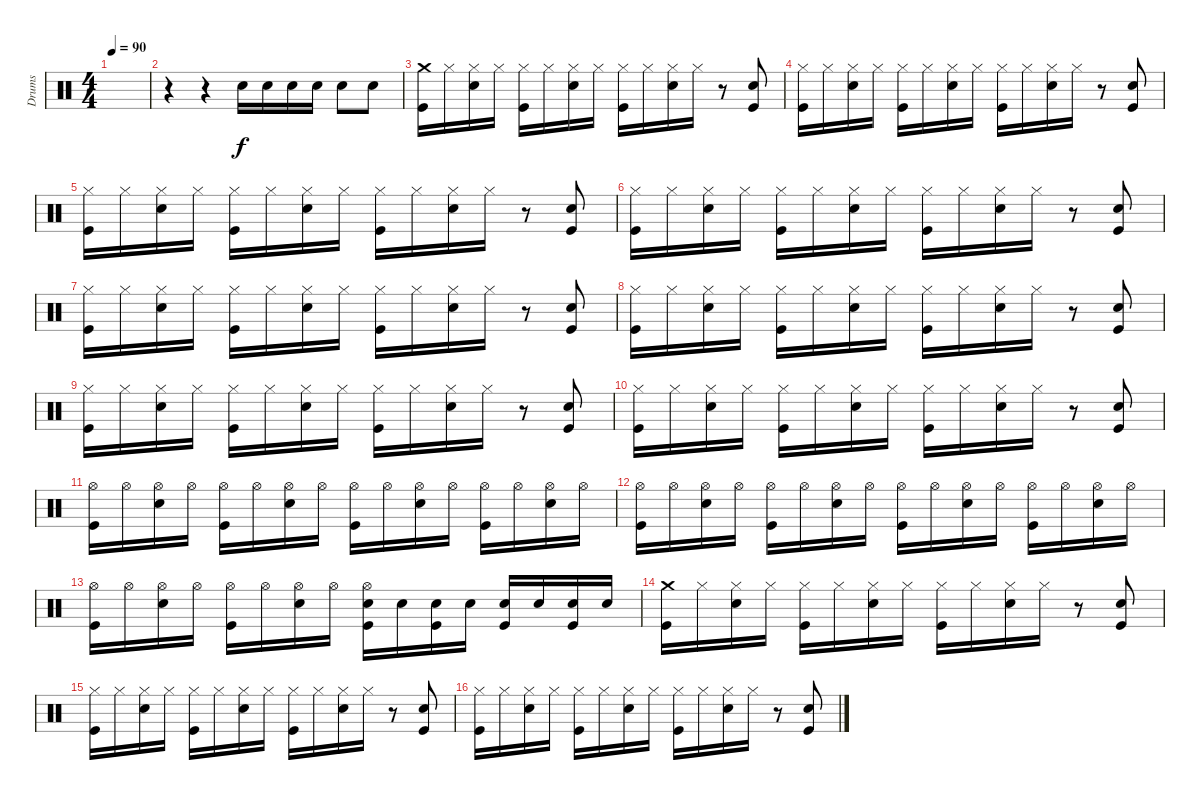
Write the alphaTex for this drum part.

\track ("Drums" "Drums") {instrument percussion}
\staff {score}
\articulation defaults
\ts (4 4)
\tempo 90
\clef neutral
\ks c
|
r.4 r.4 "Electric Snare (hit)".16 "Electric Snare (hit)".16 "Electric Snare (hit)".16 "Electric Snare (hit)".16 "Electric Snare (hit)".8 "Electric Snare (hit)".8 |
("Kick (hit)" "Crash medium (hit)").16 "Hi-Hat (closed)".16 ("Hi-Hat (closed)" "Electric Snare (hit)").16 "Hi-Hat (closed)".16 ("Hi-Hat (closed)" "Kick (hit)").16 "Hi-Hat (closed)".16 ("Hi-Hat (closed)" "Electric Snare (hit)").16 "Hi-Hat (closed)".16 ("Hi-Hat (closed)" "Kick (hit)").16 "Hi-Hat (closed)".16 ("Hi-Hat (closed)" "Electric Snare (hit)").16 "Hi-Hat (closed)".16 r.8 ("Kick (hit)" "Electric Snare (hit)").8 |
("Hi-Hat (closed)" "Kick (hit)").16 "Hi-Hat (closed)".16 ("Hi-Hat (closed)" "Electric Snare (hit)").16 "Hi-Hat (closed)".16 ("Hi-Hat (closed)" "Kick (hit)").16 "Hi-Hat (closed)".16 ("Hi-Hat (closed)" "Electric Snare (hit)").16 "Hi-Hat (closed)".16 ("Hi-Hat (closed)" "Kick (hit)").16 "Hi-Hat (closed)".16 ("Hi-Hat (closed)" "Electric Snare (hit)").16 "Hi-Hat (closed)".16 r.8 ("Kick (hit)" "Electric Snare (hit)").8 |
("Hi-Hat (closed)" "Kick (hit)").16 "Hi-Hat (closed)".16 ("Hi-Hat (closed)" "Electric Snare (hit)").16 "Hi-Hat (closed)".16 ("Hi-Hat (closed)" "Kick (hit)").16 "Hi-Hat (closed)".16 ("Hi-Hat (closed)" "Electric Snare (hit)").16 "Hi-Hat (closed)".16 ("Hi-Hat (closed)" "Kick (hit)").16 "Hi-Hat (closed)".16 ("Hi-Hat (closed)" "Electric Snare (hit)").16 "Hi-Hat (closed)".16 r.8 ("Kick (hit)" "Electric Snare (hit)").8 |
("Hi-Hat (closed)" "Kick (hit)").16 "Hi-Hat (closed)".16 ("Hi-Hat (closed)" "Electric Snare (hit)").16 "Hi-Hat (closed)".16 ("Hi-Hat (closed)" "Kick (hit)").16 "Hi-Hat (closed)".16 ("Hi-Hat (closed)" "Electric Snare (hit)").16 "Hi-Hat (closed)".16 ("Hi-Hat (closed)" "Kick (hit)").16 "Hi-Hat (closed)".16 ("Hi-Hat (closed)" "Electric Snare (hit)").16 "Hi-Hat (closed)".16 r.8 ("Kick (hit)" "Electric Snare (hit)").8 |
("Hi-Hat (closed)" "Kick (hit)").16 "Hi-Hat (closed)".16 ("Hi-Hat (closed)" "Electric Snare (hit)").16 "Hi-Hat (closed)".16 ("Hi-Hat (closed)" "Kick (hit)").16 "Hi-Hat (closed)".16 ("Hi-Hat (closed)" "Electric Snare (hit)").16 "Hi-Hat (closed)".16 ("Hi-Hat (closed)" "Kick (hit)").16 "Hi-Hat (closed)".16 ("Hi-Hat (closed)" "Electric Snare (hit)").16 "Hi-Hat (closed)".16 r.8 ("Kick (hit)" "Electric Snare (hit)").8 |
("Hi-Hat (closed)" "Kick (hit)").16 "Hi-Hat (closed)".16 ("Hi-Hat (closed)" "Electric Snare (hit)").16 "Hi-Hat (closed)".16 ("Hi-Hat (closed)" "Kick (hit)").16 "Hi-Hat (closed)".16 ("Hi-Hat (closed)" "Electric Snare (hit)").16 "Hi-Hat (closed)".16 ("Hi-Hat (closed)" "Kick (hit)").16 "Hi-Hat (closed)".16 ("Hi-Hat (closed)" "Electric Snare (hit)").16 "Hi-Hat (closed)".16 r.8 ("Kick (hit)" "Electric Snare (hit)").8 |
("Hi-Hat (closed)" "Kick (hit)").16 "Hi-Hat (closed)".16 ("Hi-Hat (closed)" "Electric Snare (hit)").16 "Hi-Hat (closed)".16 ("Hi-Hat (closed)" "Kick (hit)").16 "Hi-Hat (closed)".16 ("Hi-Hat (closed)" "Electric Snare (hit)").16 "Hi-Hat (closed)".16 ("Hi-Hat (closed)" "Kick (hit)").16 "Hi-Hat (closed)".16 ("Hi-Hat (closed)" "Electric Snare (hit)").16 "Hi-Hat (closed)".16 r.8 ("Kick (hit)" "Electric Snare (hit)").8 |
("Hi-Hat (closed)" "Kick (hit)").16 "Hi-Hat (closed)".16 ("Hi-Hat (closed)" "Electric Snare (hit)").16 "Hi-Hat (closed)".16 ("Hi-Hat (closed)" "Kick (hit)").16 "Hi-Hat (closed)".16 ("Hi-Hat (closed)" "Electric Snare (hit)").16 "Hi-Hat (closed)".16 ("Hi-Hat (closed)" "Kick (hit)").16 "Hi-Hat (closed)".16 ("Hi-Hat (closed)" "Electric Snare (hit)").16 "Hi-Hat (closed)".16 r.8 ("Kick (hit)" "Electric Snare (hit)").8 |
("Hi-Hat (open)" "Kick (hit)").16 "Hi-Hat (open)".16 ("Hi-Hat (open)" "Electric Snare (hit)").16 "Hi-Hat (open)".16 ("Hi-Hat (open)" "Kick (hit)").16 "Hi-Hat (open)".16 ("Hi-Hat (open)" "Electric Snare (hit)").16 "Hi-Hat (open)".16 ("Hi-Hat (open)" "Kick (hit)").16 "Hi-Hat (open)".16 ("Hi-Hat (open)" "Electric Snare (hit)").16 "Hi-Hat (open)".16 ("Hi-Hat (open)" "Kick (hit)").16 "Hi-Hat (open)".16 ("Hi-Hat (open)" "Electric Snare (hit)").16 "Hi-Hat (open)".16 |
("Hi-Hat (open)" "Kick (hit)").16 "Hi-Hat (open)".16 ("Hi-Hat (open)" "Electric Snare (hit)").16 "Hi-Hat (open)".16 ("Hi-Hat (open)" "Kick (hit)").16 "Hi-Hat (open)".16 ("Hi-Hat (open)" "Electric Snare (hit)").16 "Hi-Hat (open)".16 ("Hi-Hat (open)" "Kick (hit)").16 "Hi-Hat (open)".16 ("Hi-Hat (open)" "Electric Snare (hit)").16 "Hi-Hat (open)".16 ("Hi-Hat (open)" "Kick (hit)").16 "Hi-Hat (open)".16 ("Hi-Hat (open)" "Electric Snare (hit)").16 "Hi-Hat (open)".16 |
("Hi-Hat (open)" "Kick (hit)").16 "Hi-Hat (open)".16 ("Hi-Hat (open)" "Electric Snare (hit)").16 "Hi-Hat (open)".16 ("Hi-Hat (open)" "Kick (hit)").16 "Hi-Hat (open)".16 ("Hi-Hat (open)" "Electric Snare (hit)").16 "Hi-Hat (open)".16 ("Hi-Hat (open)" "Kick (hit)" "Electric Snare (hit)").16 "Electric Snare (hit)".16 ("Kick (hit)" "Electric Snare (hit)").16 "Electric Snare (hit)".16 ("Kick (hit)" "Electric Snare (hit)").16 "Electric Snare (hit)".16 ("Kick (hit)" "Electric Snare (hit)").16 "Electric Snare (hit)".16 |
("Kick (hit)" "Crash medium (hit)").16 "Hi-Hat (closed)".16 ("Hi-Hat (closed)" "Electric Snare (hit)").16 "Hi-Hat (closed)".16 ("Hi-Hat (closed)" "Kick (hit)").16 "Hi-Hat (closed)".16 ("Hi-Hat (closed)" "Electric Snare (hit)").16 "Hi-Hat (closed)".16 ("Hi-Hat (closed)" "Kick (hit)").16 "Hi-Hat (closed)".16 ("Hi-Hat (closed)" "Electric Snare (hit)").16 "Hi-Hat (closed)".16 r.8 ("Kick (hit)" "Electric Snare (hit)").8 |
("Hi-Hat (closed)" "Kick (hit)").16 "Hi-Hat (closed)".16 ("Hi-Hat (closed)" "Electric Snare (hit)").16 "Hi-Hat (closed)".16 ("Hi-Hat (closed)" "Kick (hit)").16 "Hi-Hat (closed)".16 ("Hi-Hat (closed)" "Electric Snare (hit)").16 "Hi-Hat (closed)".16 ("Hi-Hat (closed)" "Kick (hit)").16 "Hi-Hat (closed)".16 ("Hi-Hat (closed)" "Electric Snare (hit)").16 "Hi-Hat (closed)".16 r.8 ("Kick (hit)" "Electric Snare (hit)").8 |
("Hi-Hat (closed)" "Kick (hit)").16 "Hi-Hat (closed)".16 ("Hi-Hat (closed)" "Electric Snare (hit)").16 "Hi-Hat (closed)".16 ("Hi-Hat (closed)" "Kick (hit)").16 "Hi-Hat (closed)".16 ("Hi-Hat (closed)" "Electric Snare (hit)").16 "Hi-Hat (closed)".16 ("Hi-Hat (closed)" "Kick (hit)").16 "Hi-Hat (closed)".16 ("Hi-Hat (closed)" "Electric Snare (hit)").16 "Hi-Hat (closed)".16 r.8 ("Kick (hit)" "Electric Snare (hit)").8
